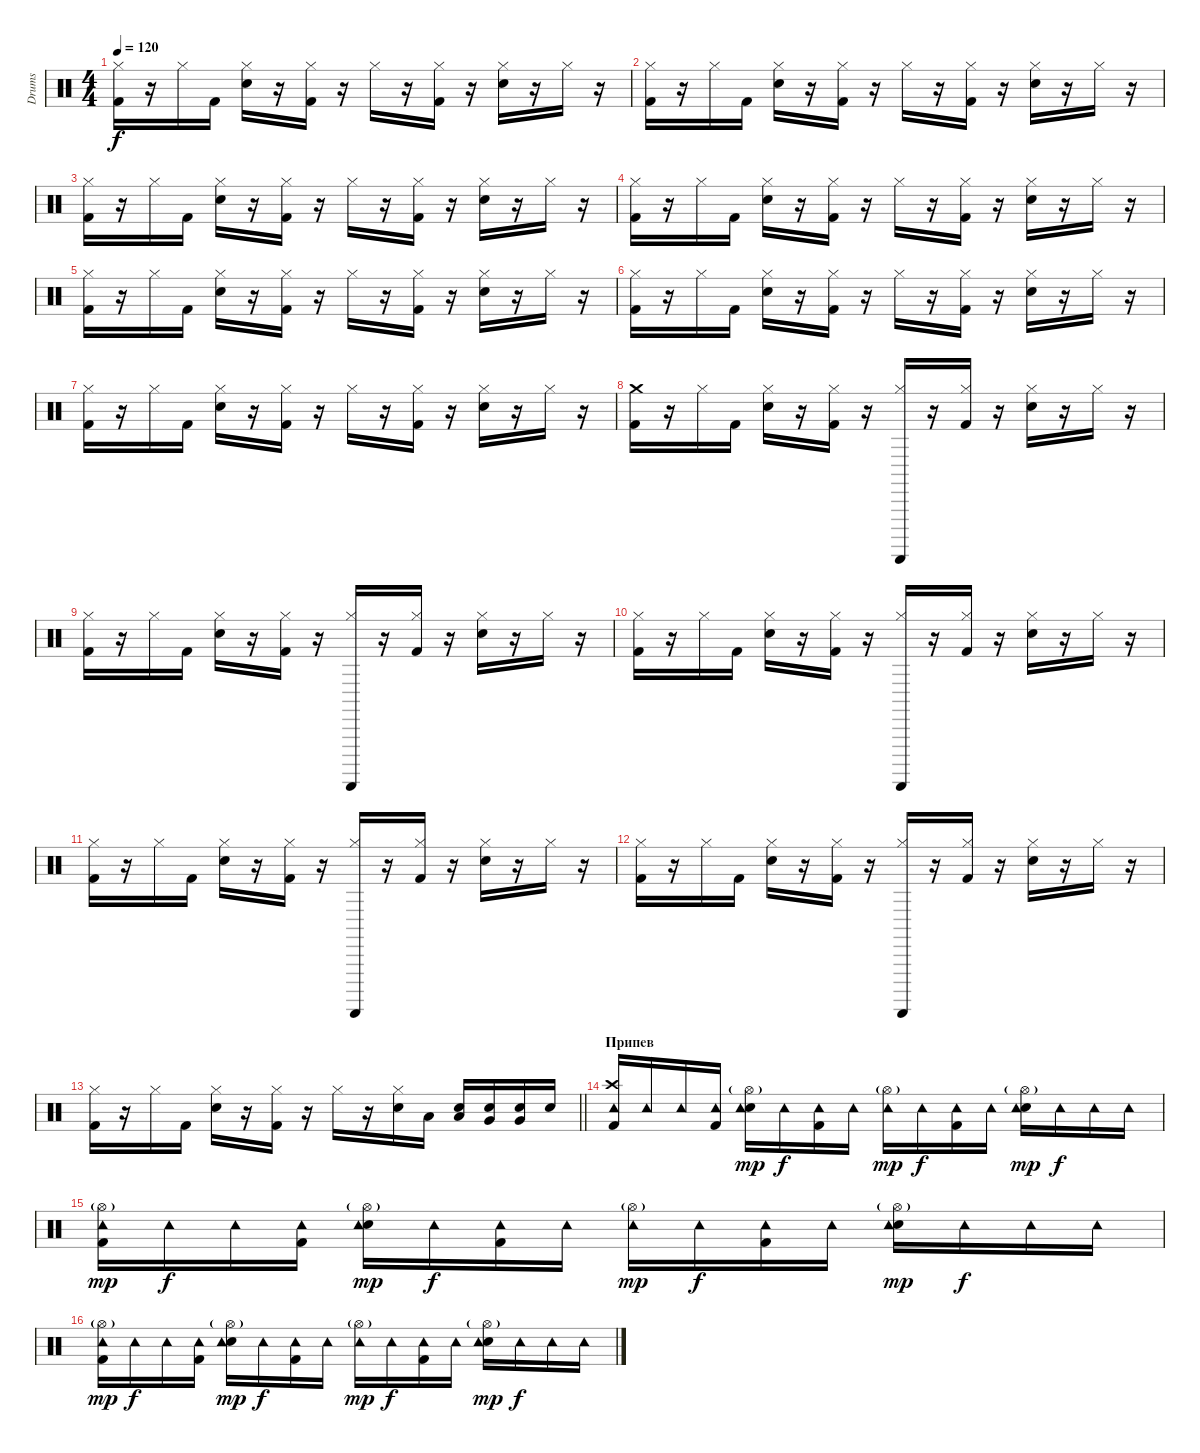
\track ("Drums" "Drums") {instrument percussion}
\staff {score}
\articulation defaults
\ts (4 4)
\tempo 120
\clef neutral
\ks c
("Hi-Hat (closed)" "Kick (hit) 2").16{dy f} r.16 "Hi-Hat (closed)".16 "Kick (hit) 2".16 ("Hi-Hat (closed)" "Electric Snare (hit)").16 r.16 ("Hi-Hat (closed)" "Kick (hit) 2").16 r.16 "Hi-Hat (closed)".16 r.16 ("Hi-Hat (closed)" "Kick (hit) 2").16 r.16 ("Hi-Hat (closed)" "Electric Snare (hit)").16 r.16 "Hi-Hat (closed)".16 r.16 |
("Hi-Hat (closed)" "Kick (hit) 2").16 r.16 "Hi-Hat (closed)".16 "Kick (hit) 2".16 ("Hi-Hat (closed)" "Electric Snare (hit)").16 r.16 ("Hi-Hat (closed)" "Kick (hit) 2").16 r.16 "Hi-Hat (closed)".16 r.16 ("Hi-Hat (closed)" "Kick (hit) 2").16 r.16 ("Hi-Hat (closed)" "Electric Snare (hit)").16 r.16 "Hi-Hat (closed)".16 r.16 |
("Hi-Hat (closed)" "Kick (hit) 2").16 r.16 "Hi-Hat (closed)".16 "Kick (hit) 2".16 ("Hi-Hat (closed)" "Electric Snare (hit)").16 r.16 ("Hi-Hat (closed)" "Kick (hit) 2").16 r.16 "Hi-Hat (closed)".16 r.16 ("Hi-Hat (closed)" "Kick (hit) 2").16 r.16 ("Hi-Hat (closed)" "Electric Snare (hit)").16 r.16 "Hi-Hat (closed)".16 r.16 |
("Hi-Hat (closed)" "Kick (hit) 2").16 r.16 "Hi-Hat (closed)".16 "Kick (hit) 2".16 ("Hi-Hat (closed)" "Electric Snare (hit)").16 r.16 ("Hi-Hat (closed)" "Kick (hit) 2").16 r.16 "Hi-Hat (closed)".16 r.16 ("Hi-Hat (closed)" "Kick (hit) 2").16 r.16 ("Hi-Hat (closed)" "Electric Snare (hit)").16 r.16 "Hi-Hat (closed)".16 r.16 |
("Hi-Hat (closed)" "Kick (hit) 2").16 r.16 "Hi-Hat (closed)".16 "Kick (hit) 2".16 ("Hi-Hat (closed)" "Electric Snare (hit)").16 r.16 ("Hi-Hat (closed)" "Kick (hit) 2").16 r.16 "Hi-Hat (closed)".16 r.16 ("Hi-Hat (closed)" "Kick (hit) 2").16 r.16 ("Hi-Hat (closed)" "Electric Snare (hit)").16 r.16 "Hi-Hat (closed)".16 r.16 |
("Hi-Hat (closed)" "Kick (hit) 2").16 r.16 "Hi-Hat (closed)".16 "Kick (hit) 2".16 ("Hi-Hat (closed)" "Electric Snare (hit)").16 r.16 ("Hi-Hat (closed)" "Kick (hit) 2").16 r.16 "Hi-Hat (closed)".16 r.16 ("Hi-Hat (closed)" "Kick (hit) 2").16 r.16 ("Hi-Hat (closed)" "Electric Snare (hit)").16 r.16 "Hi-Hat (closed)".16 r.16 |
("Hi-Hat (closed)" "Kick (hit) 2").16 r.16 "Hi-Hat (closed)".16 "Kick (hit) 2".16 ("Hi-Hat (closed)" "Electric Snare (hit)").16 r.16 ("Hi-Hat (closed)" "Kick (hit) 2").16 r.16 "Hi-Hat (closed)".16 r.16 ("Hi-Hat (closed)" "Kick (hit) 2").16 r.16 ("Hi-Hat (closed)" "Electric Snare (hit)").16 r.16 "Hi-Hat (closed)".16 r.16 |
("Crash medium (hit)" "Kick (hit) 2").16 r.16 "Hi-Hat (closed)".16 "Kick (hit) 2".16 ("Hi-Hat (closed)" "Electric Snare (hit)").16 r.16 ("Hi-Hat (closed)" "Kick (hit) 2").16 r.16 ("Hi-Hat (closed)" "Guiro (scrap-return)").16 r.16 ("Hi-Hat (closed)" "Kick (hit) 2").16 r.16 ("Hi-Hat (closed)" "Electric Snare (hit)").16 r.16 "Hi-Hat (closed)".16 r.16 |
("Hi-Hat (closed)" "Kick (hit) 2").16 r.16 "Hi-Hat (closed)".16 "Kick (hit) 2".16 ("Hi-Hat (closed)" "Electric Snare (hit)").16 r.16 ("Hi-Hat (closed)" "Kick (hit) 2").16 r.16 ("Hi-Hat (closed)" "Guiro (scrap-return)").16 r.16 ("Hi-Hat (closed)" "Kick (hit) 2").16 r.16 ("Hi-Hat (closed)" "Electric Snare (hit)").16 r.16 "Hi-Hat (closed)".16 r.16 |
("Hi-Hat (closed)" "Kick (hit) 2").16 r.16 "Hi-Hat (closed)".16 "Kick (hit) 2".16 ("Hi-Hat (closed)" "Electric Snare (hit)").16 r.16 ("Hi-Hat (closed)" "Kick (hit) 2").16 r.16 ("Hi-Hat (closed)" "Guiro (scrap-return)").16 r.16 ("Hi-Hat (closed)" "Kick (hit) 2").16 r.16 ("Hi-Hat (closed)" "Electric Snare (hit)").16 r.16 "Hi-Hat (closed)".16 r.16 |
("Hi-Hat (closed)" "Kick (hit) 2").16 r.16 "Hi-Hat (closed)".16 "Kick (hit) 2".16 ("Hi-Hat (closed)" "Electric Snare (hit)").16 r.16 ("Hi-Hat (closed)" "Kick (hit) 2").16 r.16 ("Hi-Hat (closed)" "Guiro (scrap-return)").16 r.16 ("Hi-Hat (closed)" "Kick (hit) 2").16 r.16 ("Hi-Hat (closed)" "Electric Snare (hit)").16 r.16 "Hi-Hat (closed)".16 r.16 |
("Hi-Hat (closed)" "Kick (hit) 2").16 r.16 "Hi-Hat (closed)".16 "Kick (hit) 2".16 ("Hi-Hat (closed)" "Electric Snare (hit)").16 r.16 ("Hi-Hat (closed)" "Kick (hit) 2").16 r.16 ("Hi-Hat (closed)" "Guiro (scrap-return)").16 r.16 ("Hi-Hat (closed)" "Kick (hit) 2").16 r.16 ("Hi-Hat (closed)" "Electric Snare (hit)").16 r.16 "Hi-Hat (closed)".16 r.16 |
\barLineRight lightlight
("Hi-Hat (closed)" "Kick (hit) 2").16 r.16 "Hi-Hat (closed)".16 "Kick (hit) 2".16 ("Hi-Hat (closed)" "Electric Snare (hit)").16 r.16 ("Hi-Hat (closed)" "Kick (hit) 2").16 r.16 "Hi-Hat (closed)".16 r.16 ("Hi-Hat (closed)" "Electric Snare (hit)").16 "Low Tom (hit)".16 ("Electric Snare (hit)" "Low Tom (hit)").16 ("Electric Snare (hit)" "Very Low Tom (hit)").16 ("Electric Snare (hit)" "Very Low Tom (hit)").16 "Electric Snare (hit)".16 |
\section ("" "Припев")
("Crash high (hit)" "Kick (hit) 2" "Tambourine (hit)").16 "Tambourine (hit)".16 "Tambourine (hit)".16 ("Kick (hit) 2" "Tambourine (hit)").16 ("Hi-Hat (open)"{g} "Electric Snare (hit)" "Tambourine (hit)").16{dy mp} "Tambourine (hit)".16{dy f} ("Kick (hit) 2" "Tambourine (hit)").16 "Tambourine (hit)".16 ("Hi-Hat (open)"{g} "Tambourine (hit)").16{dy mp} "Tambourine (hit)".16{dy f} ("Kick (hit) 2" "Tambourine (hit)").16 "Tambourine (hit)".16 ("Hi-Hat (open)"{g} "Electric Snare (hit)" "Tambourine (hit)").16{dy mp} "Tambourine (hit)".16{dy f} "Tambourine (hit)".16 "Tambourine (hit)".16 |
("Hi-Hat (open)"{g} "Kick (hit) 2" "Tambourine (hit)").16{dy mp} "Tambourine (hit)".16{dy f} "Tambourine (hit)".16 ("Kick (hit) 2" "Tambourine (hit)").16 ("Hi-Hat (open)"{g} "Electric Snare (hit)" "Tambourine (hit)").16{dy mp} "Tambourine (hit)".16{dy f} ("Kick (hit) 2" "Tambourine (hit)").16 "Tambourine (hit)".16 ("Hi-Hat (open)"{g} "Tambourine (hit)").16{dy mp} "Tambourine (hit)".16{dy f} ("Kick (hit) 2" "Tambourine (hit)").16 "Tambourine (hit)".16 ("Hi-Hat (open)"{g} "Electric Snare (hit)" "Tambourine (hit)").16{dy mp} "Tambourine (hit)".16{dy f} "Tambourine (hit)".16 "Tambourine (hit)".16 |
("Hi-Hat (open)"{g} "Kick (hit) 2" "Tambourine (hit)").16{dy mp} "Tambourine (hit)".16{dy f} "Tambourine (hit)".16 ("Kick (hit) 2" "Tambourine (hit)").16 ("Hi-Hat (open)"{g} "Electric Snare (hit)" "Tambourine (hit)").16{dy mp} "Tambourine (hit)".16{dy f} ("Kick (hit) 2" "Tambourine (hit)").16 "Tambourine (hit)".16 ("Hi-Hat (open)"{g} "Tambourine (hit)").16{dy mp} "Tambourine (hit)".16{dy f} ("Kick (hit) 2" "Tambourine (hit)").16 "Tambourine (hit)".16 ("Hi-Hat (open)"{g} "Electric Snare (hit)" "Tambourine (hit)").16{dy mp} "Tambourine (hit)".16{dy f} "Tambourine (hit)".16 "Tambourine (hit)".16
